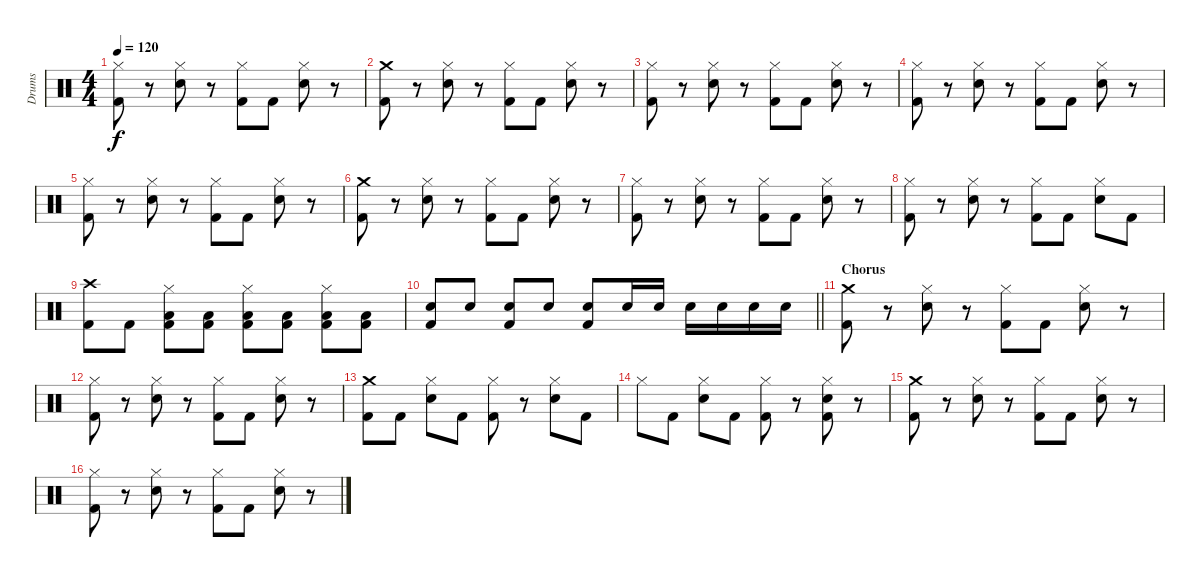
\track ("Drums" "Drums") {instrument percussion}
\staff {score}
\articulation defaults
\ts (4 4)
\tempo 120
\clef neutral
\ks c
("Hi-Hat (closed)" "Kick (hit) 2").8{dy f} r.8 ("Hi-Hat (closed)" "Electric Snare (hit)").8 r.8 ("Hi-Hat (closed)" "Kick (hit) 2").8 "Kick (hit) 2".8 ("Hi-Hat (closed)" "Electric Snare (hit)").8 r.8 |
("Crash medium (hit)" "Kick (hit) 2").8 r.8 ("Hi-Hat (closed)" "Electric Snare (hit)").8 r.8 ("Hi-Hat (closed)" "Kick (hit) 2").8 "Kick (hit) 2".8 ("Hi-Hat (closed)" "Electric Snare (hit)").8 r.8 |
("Hi-Hat (closed)" "Kick (hit) 2").8 r.8 ("Hi-Hat (closed)" "Electric Snare (hit)").8 r.8 ("Hi-Hat (closed)" "Kick (hit) 2").8 "Kick (hit) 2".8 ("Hi-Hat (closed)" "Electric Snare (hit)").8 r.8 |
("Hi-Hat (closed)" "Kick (hit) 2").8 r.8 ("Hi-Hat (closed)" "Electric Snare (hit)").8 r.8 ("Hi-Hat (closed)" "Kick (hit) 2").8 "Kick (hit) 2".8 ("Hi-Hat (closed)" "Electric Snare (hit)").8 r.8 |
("Hi-Hat (closed)" "Kick (hit) 2").8 r.8 ("Hi-Hat (closed)" "Electric Snare (hit)").8 r.8 ("Hi-Hat (closed)" "Kick (hit) 2").8 "Kick (hit) 2".8 ("Hi-Hat (closed)" "Electric Snare (hit)").8 r.8 |
("Crash medium (hit)" "Kick (hit) 2").8 r.8 ("Hi-Hat (closed)" "Electric Snare (hit)").8 r.8 ("Hi-Hat (closed)" "Kick (hit) 2").8 "Kick (hit) 2".8 ("Hi-Hat (closed)" "Electric Snare (hit)").8 r.8 |
("Hi-Hat (closed)" "Kick (hit) 2").8 r.8 ("Hi-Hat (closed)" "Electric Snare (hit)").8 r.8 ("Hi-Hat (closed)" "Kick (hit) 2").8 "Kick (hit) 2".8 ("Hi-Hat (closed)" "Electric Snare (hit)").8 r.8 |
("Hi-Hat (closed)" "Kick (hit) 2").8 r.8 ("Hi-Hat (closed)" "Electric Snare (hit)").8 r.8 ("Hi-Hat (closed)" "Kick (hit) 2").8 "Kick (hit) 2".8 ("Hi-Hat (closed)" "Electric Snare (hit)").8 "Kick (hit) 2".8 |
("Crash high (hit)" "Kick (hit) 2").8 "Kick (hit) 2".8 ("Hi-Hat (closed)" "Low Tom (hit)" "Kick (hit) 2").8 ("Low Tom (hit)" "Kick (hit) 2").8 ("Hi-Hat (closed)" "Low Tom (hit)" "Kick (hit) 2").8 ("Low Tom (hit)" "Kick (hit) 2").8 ("Hi-Hat (closed)" "Low Tom (hit)" "Kick (hit) 2").8 ("Low Tom (hit)" "Kick (hit) 2").8 |
\barLineRight lightlight
("Electric Snare (hit)" "Kick (hit) 2").8 "Electric Snare (hit)".8 ("Electric Snare (hit)" "Kick (hit) 2").8 "Electric Snare (hit)".8 ("Electric Snare (hit)" "Kick (hit) 2").8 "Electric Snare (hit)".16 "Electric Snare (hit)".16 "Electric Snare (hit)".16 "Electric Snare (hit)".16 "Electric Snare (hit)".16 "Electric Snare (hit)".16 |
\section ("" "Chorus")
("Crash medium (hit)" "Kick (hit) 2").8 r.8 ("Hi-Hat (closed)" "Electric Snare (hit)").8 r.8 ("Hi-Hat (closed)" "Kick (hit) 2").8 "Kick (hit) 2".8 ("Hi-Hat (closed)" "Electric Snare (hit)").8 r.8 |
("Hi-Hat (closed)" "Kick (hit) 2").8 r.8 ("Hi-Hat (closed)" "Electric Snare (hit)").8 r.8 ("Hi-Hat (closed)" "Kick (hit) 2").8 "Kick (hit) 2".8 ("Hi-Hat (closed)" "Electric Snare (hit)").8 r.8 |
("Crash medium (hit)" "Kick (hit) 2").8 "Kick (hit) 2".8 ("Hi-Hat (closed)" "Electric Snare (hit)").8 "Kick (hit) 2".8 ("Hi-Hat (closed)" "Kick (hit) 2").8 r.8 ("Hi-Hat (closed)" "Electric Snare (hit)").8 "Kick (hit) 2".8 |
"Hi-Hat (closed)".8 "Kick (hit) 2".8 ("Hi-Hat (closed)" "Electric Snare (hit)").8 "Kick (hit) 2".8 ("Hi-Hat (closed)" "Kick (hit) 2").8 r.8 ("Hi-Hat (closed)" "Electric Snare (hit)" "Kick (hit) 2").8 r.8 |
("Crash medium (hit)" "Kick (hit) 2").8 r.8 ("Hi-Hat (closed)" "Electric Snare (hit)").8 r.8 ("Hi-Hat (closed)" "Kick (hit) 2").8 "Kick (hit) 2".8 ("Hi-Hat (closed)" "Electric Snare (hit)").8 r.8 |
("Hi-Hat (closed)" "Kick (hit) 2").8 r.8 ("Hi-Hat (closed)" "Electric Snare (hit)").8 r.8 ("Hi-Hat (closed)" "Kick (hit) 2").8 "Kick (hit) 2".8 ("Hi-Hat (closed)" "Electric Snare (hit)").8 r.8
